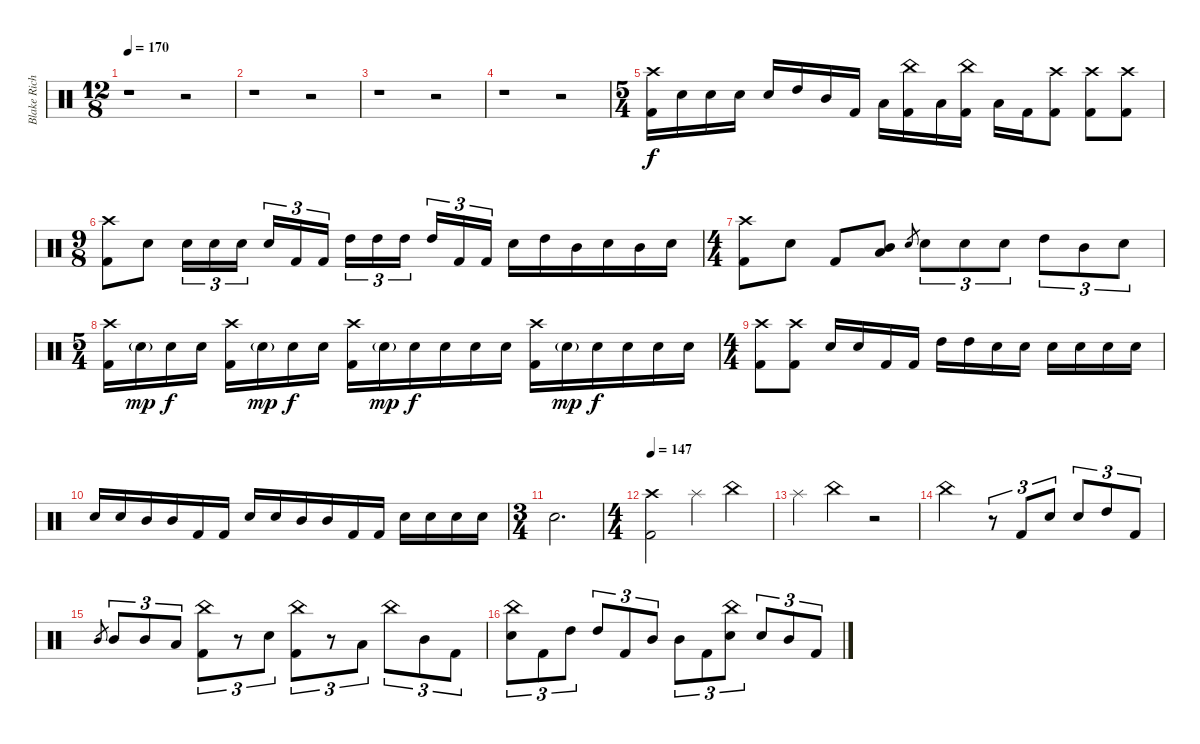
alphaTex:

\track ("Blake Richardson" "Blake Rich") {instrument percussion}
\staff {score}
\articulation defaults
\ts (12 8)
\tempo 170
\clef neutral
\ks c
r.1{dy f} r.2 |
r.1 r.2 |
r.1 r.2 |
r.1 r.2 |
\ts (5 4)
("Crash high (hit)" "Kick (hit) 2").16{volume 13} "Electric Snare (hit)".16 "Electric Snare (hit)".16 "Electric Snare (hit)".16 "Electric Snare (hit)".16 "High Tom (hit)".16 "Mid Tom (hit)".16 "Kick (hit) 2".16 "Low Tom (hit)".16 ("China (hit)" "Kick (hit) 2").16 "Low Tom (hit)".16{beam merge} ("China (hit)" "Kick (hit) 2").16 "Low Tom (hit)".16 "Kick (hit) 2".16{beam merge} ("Crash high (hit)" "Kick (hit) 2").8{beam split} ("Crash high (hit)" "Kick (hit) 2").8 ("Crash high (hit)" "Kick (hit) 2").8 |
\ts (9 8)
("Crash high (hit)" "Kick (hit) 2").8 "Electric Snare (hit)".8 "Electric Snare (hit)".16{tu (3 2)} "Electric Snare (hit)".16{tu (3 2)} "Electric Snare (hit)".16{tu (3 2) beam splitsecondary} "Electric Snare (hit)".16{tu (3 2)} "Kick (hit) 2".16{tu (3 2)} "Kick (hit) 2".16{tu (3 2) beam split} "High Tom (hit)".16{tu (3 2)} "High Tom (hit)".16{tu (3 2)} "High Tom (hit)".16{tu (3 2) beam splitsecondary} "High Tom (hit)".16{tu (3 2)} "Kick (hit) 2".16{tu (3 2)} "Kick (hit) 2".16{tu (3 2)} "Electric Snare (hit)".16 "High Tom (hit)".16 "Mid Tom (hit)".16 "Electric Snare (hit)".16 "Mid Tom (hit)".16 "Electric Snare (hit)".16 |
\ts (4 4)
("Crash high (hit)" "Kick (hit) 2").8 "Electric Snare (hit)".8 "Kick (hit) 2".8 ("Mid Tom (hit)" "Low Tom (hit)").8 "Electric Snare (hit)".8{gr} "Electric Snare (hit)".8{tu (3 2)} "Electric Snare (hit)".8{tu (3 2)} "Electric Snare (hit)".8{tu (3 2)} "High Tom (hit)".8{tu (3 2)} "Mid Tom (hit)".8{tu (3 2)} "Electric Snare (hit)".8{tu (3 2)} |
\ts (5 4)
("Crash high (hit)" "Kick (hit) 2").16{beam merge} "Electric Snare (hit)"{g}.16{dy mp beam merge} "Electric Snare (hit)".16{dy f beam merge} "Electric Snare (hit)".16 ("Crash high (hit)" "Kick (hit) 2").16 "Electric Snare (hit)"{g}.16{dy mp beam merge} "Electric Snare (hit)".16{dy f} "Electric Snare (hit)".16 ("Crash high (hit)" "Kick (hit) 2").16 "Electric Snare (hit)"{g}.16{dy mp beam merge} "Electric Snare (hit)".16{dy f} "Electric Snare (hit)".16{beam merge} "Electric Snare (hit)".16 "Electric Snare (hit)".16{beam split} ("Crash high (hit)" "Kick (hit) 2").16 "Electric Snare (hit)"{g}.16{dy mp beam merge} "Electric Snare (hit)".16{dy f} "Electric Snare (hit)".16{beam merge} "Electric Snare (hit)".16 "Electric Snare (hit)".16 |
\ts (4 4)
("Crash high (hit)" "Kick (hit) 2").8 ("Crash high (hit)" "Kick (hit) 2").8 "Electric Snare (hit)".16 "Electric Snare (hit)".16{beam merge} "Kick (hit) 2".16 "Kick (hit) 2".16 "High Tom (hit)".16 "High Tom (hit)".16 "Electric Snare (hit)".16 "Electric Snare (hit)".16 "Electric Snare (hit)".16 "Electric Snare (hit)".16 "Electric Snare (hit)".16 "Electric Snare (hit)".16 |
"Electric Snare (hit)".16 "Electric Snare (hit)".16 "Mid Tom (hit)".16 "Mid Tom (hit)".16{beam merge} "Kick (hit) 2".16 "Kick (hit) 2".16{beam split} "Electric Snare (hit)".16 "Electric Snare (hit)".16{beam merge} "Mid Tom (hit)".16 "Mid Tom (hit)".16 "Kick (hit) 2".16 "Kick (hit) 2".16{beam split} "Electric Snare (hit)".16 "Electric Snare (hit)".16 "Electric Snare (hit)".16 "Electric Snare (hit)".16 |
\ts (3 4)
"Electric Snare (hit)".2{d} |
\ts (4 4)
\tempo 147
("Crash high (hit)" "Kick (hit) 2").2{volume 16} "Splash (hit)".4 "China (hit)".4 |
"Splash (hit)".4 "China (hit)".4 r.2 |
"China (hit)".2 r.8{tu (3 2)} "Kick (hit) 2".8{tu (3 2)} "Electric Snare (hit)".8{tu (3 2)} "Electric Snare (hit)".8{tu (3 2)} "High Tom (hit)".8{tu (3 2)} "Kick (hit) 2".8{tu (3 2)} |
"Mid Tom (hit)".8{gr} "Mid Tom (hit)".8{tu (3 2)} "Mid Tom (hit)".8{tu (3 2)} "Low Tom (hit)".8{tu (3 2)} ("China (hit)" "Kick (hit) 2").8{tu (3 2)} r.8{tu (3 2)} "Electric Snare (hit)".8{tu (3 2)} ("China (hit)" "Kick (hit) 2").8{tu (3 2)} r.8{tu (3 2)} "Low Tom (hit)".8{tu (3 2)} "China (hit)".8{tu (3 2)} "Mid Tom (hit)".8{tu (3 2)} "Kick (hit) 2".8{tu (3 2)} |
("China (hit)" "Electric Snare (hit)").8{tu (3 2)} "Kick (hit) 2".8{tu (3 2)} "High Tom (hit)".8{tu (3 2)} "High Tom (hit)".8{tu (3 2)} "Kick (hit) 2".8{tu (3 2)} "Mid Tom (hit)".8{tu (3 2)} "Mid Tom (hit)".8{tu (3 2)} "Kick (hit) 2".8{tu (3 2)} ("China (hit)" "Electric Snare (hit)").8{tu (3 2)} "Electric Snare (hit)".8{tu (3 2)} "Mid Tom (hit)".8{tu (3 2)} "Kick (hit) 2".8{tu (3 2)}
